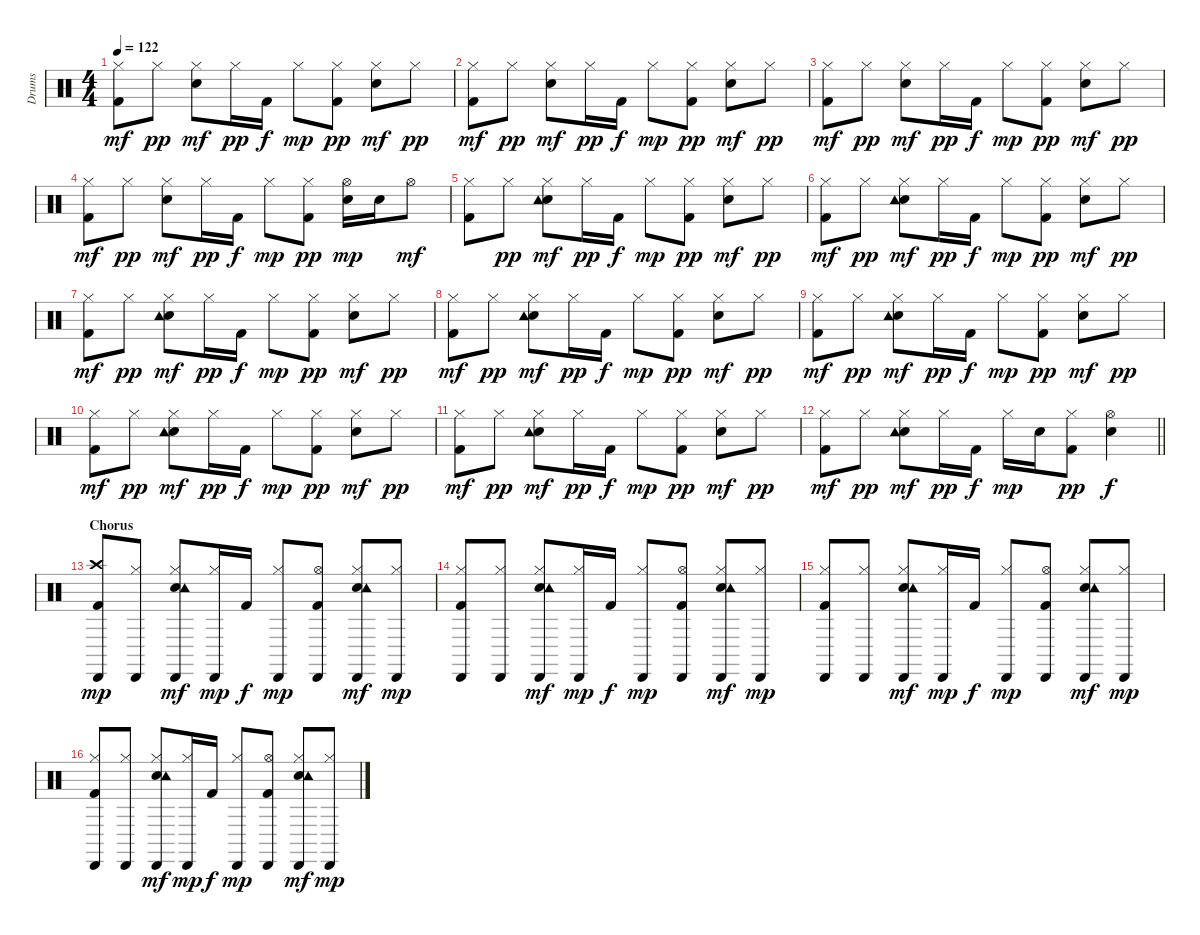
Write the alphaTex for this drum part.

\track ("Drums" "Drums") {instrument percussion}
\staff {score}
\articulation defaults
\ts (4 4)
\tempo 122
\clef neutral
\ks c
("Hi-Hat (closed)" "Kick (hit) 2").8{dy mf} "Hi-Hat (closed)".8{dy pp} ("Hi-Hat (closed)" "Electric Snare (hit)").8{dy mf} "Hi-Hat (closed)".16{dy pp} "Kick (hit) 2".16{dy f} "Hi-Hat (closed)".8{dy mp} ("Hi-Hat (closed)" "Kick (hit) 2").8{dy pp} ("Hi-Hat (closed)" "Electric Snare (hit)").8{dy mf} "Hi-Hat (closed)".8{dy pp} |
("Hi-Hat (closed)" "Kick (hit) 2").8{dy mf} "Hi-Hat (closed)".8{dy pp} ("Hi-Hat (closed)" "Electric Snare (hit)").8{dy mf} "Hi-Hat (closed)".16{dy pp} "Kick (hit) 2".16{dy f} "Hi-Hat (closed)".8{dy mp} ("Hi-Hat (closed)" "Kick (hit) 2").8{dy pp} ("Hi-Hat (closed)" "Electric Snare (hit)").8{dy mf} "Hi-Hat (closed)".8{dy pp} |
("Hi-Hat (closed)" "Kick (hit) 2").8{dy mf} "Hi-Hat (closed)".8{dy pp} ("Hi-Hat (closed)" "Electric Snare (hit)").8{dy mf} "Hi-Hat (closed)".16{dy pp} "Kick (hit) 2".16{dy f} "Hi-Hat (closed)".8{dy mp} ("Hi-Hat (closed)" "Kick (hit) 2").8{dy pp} ("Hi-Hat (closed)" "Electric Snare (hit)").8{dy mf} "Hi-Hat (closed)".8{dy pp} |
("Hi-Hat (closed)" "Kick (hit) 2").8{dy mf} "Hi-Hat (closed)".8{dy pp} ("Hi-Hat (closed)" "Electric Snare (hit)").8{dy mf} "Hi-Hat (closed)".16{dy pp} "Kick (hit) 2".16{dy f} "Hi-Hat (closed)".8{dy mp} ("Hi-Hat (closed)" "Kick (hit) 2").8{dy pp} ("Hi-Hat (open)" "Electric Snare (hit)").16{dy mp} "Electric Snare (hit)".16 "Hi-Hat (open)".8{dy mf} |
("Hi-Hat (closed)" "Kick (hit) 2").8 "Hi-Hat (closed)".8{dy pp} ("Hi-Hat (closed)" "Electric Snare (hit)" "Tambourine (hit)").8{dy mf} "Hi-Hat (closed)".16{dy pp} "Kick (hit) 2".16{dy f} "Hi-Hat (closed)".8{dy mp} ("Hi-Hat (closed)" "Kick (hit) 2").8{dy pp} ("Hi-Hat (closed)" "Electric Snare (hit)").8{dy mf} "Hi-Hat (closed)".8{dy pp} |
("Hi-Hat (closed)" "Kick (hit) 2").8{dy mf} "Hi-Hat (closed)".8{dy pp} ("Hi-Hat (closed)" "Electric Snare (hit)" "Tambourine (hit)").8{dy mf} "Hi-Hat (closed)".16{dy pp} "Kick (hit) 2".16{dy f} "Hi-Hat (closed)".8{dy mp} ("Hi-Hat (closed)" "Kick (hit) 2").8{dy pp} ("Hi-Hat (closed)" "Electric Snare (hit)").8{dy mf} "Hi-Hat (closed)".8{dy pp} |
("Hi-Hat (closed)" "Kick (hit) 2").8{dy mf} "Hi-Hat (closed)".8{dy pp} ("Hi-Hat (closed)" "Electric Snare (hit)" "Tambourine (hit)").8{dy mf} "Hi-Hat (closed)".16{dy pp} "Kick (hit) 2".16{dy f} "Hi-Hat (closed)".8{dy mp} ("Hi-Hat (closed)" "Kick (hit) 2").8{dy pp} ("Hi-Hat (closed)" "Electric Snare (hit)").8{dy mf} "Hi-Hat (closed)".8{dy pp} |
("Hi-Hat (closed)" "Kick (hit) 2").8{dy mf} "Hi-Hat (closed)".8{dy pp} ("Hi-Hat (closed)" "Electric Snare (hit)" "Tambourine (hit)").8{dy mf} "Hi-Hat (closed)".16{dy pp} "Kick (hit) 2".16{dy f} "Hi-Hat (closed)".8{dy mp} ("Hi-Hat (closed)" "Kick (hit) 2").8{dy pp} ("Hi-Hat (closed)" "Electric Snare (hit)").8{dy mf} "Hi-Hat (closed)".8{dy pp} |
("Hi-Hat (closed)" "Kick (hit) 2").8{dy mf} "Hi-Hat (closed)".8{dy pp} ("Hi-Hat (closed)" "Electric Snare (hit)" "Tambourine (hit)").8{dy mf} "Hi-Hat (closed)".16{dy pp} "Kick (hit) 2".16{dy f} "Hi-Hat (closed)".8{dy mp} ("Hi-Hat (closed)" "Kick (hit) 2").8{dy pp} ("Hi-Hat (closed)" "Electric Snare (hit)").8{dy mf} "Hi-Hat (closed)".8{dy pp} |
("Hi-Hat (closed)" "Kick (hit) 2").8{dy mf} "Hi-Hat (closed)".8{dy pp} ("Hi-Hat (closed)" "Electric Snare (hit)" "Tambourine (hit)").8{dy mf} "Hi-Hat (closed)".16{dy pp} "Kick (hit) 2".16{dy f} "Hi-Hat (closed)".8{dy mp} ("Hi-Hat (closed)" "Kick (hit) 2").8{dy pp} ("Hi-Hat (closed)" "Electric Snare (hit)").8{dy mf} "Hi-Hat (closed)".8{dy pp} |
("Hi-Hat (closed)" "Kick (hit) 2").8{dy mf} "Hi-Hat (closed)".8{dy pp} ("Hi-Hat (closed)" "Electric Snare (hit)" "Tambourine (hit)").8{dy mf} "Hi-Hat (closed)".16{dy pp} "Kick (hit) 2".16{dy f} "Hi-Hat (closed)".8{dy mp} ("Hi-Hat (closed)" "Kick (hit) 2").8{dy pp} ("Hi-Hat (closed)" "Electric Snare (hit)").8{dy mf} "Hi-Hat (closed)".8{dy pp} |
\barLineRight lightlight
("Hi-Hat (closed)" "Kick (hit) 2").8{dy mf} "Hi-Hat (closed)".8{dy pp} ("Hi-Hat (closed)" "Electric Snare (hit)" "Tambourine (hit)").8{dy mf} "Hi-Hat (closed)".16{dy pp} "Kick (hit) 2".16{dy f} "Hi-Hat (closed)".16{dy mp} "Electric Snare (hit)".16 ("Hi-Hat (closed)" "Kick (hit) 2").8{dy pp} ("Hi-Hat (open)" "Electric Snare (hit)").4{dy f} |
\section ("" "Chorus")
("Crash high (hit)" "Cabasa (hit)" "Kick (hit) 2").8{dy mp} ("Hi-Hat (closed)" "Cabasa (hit)").8 ("Hi-Hat (closed)" "Electric Snare (hit)" "Cabasa (hit)" "Tambourine (hit)").8{dy mf} ("Hi-Hat (closed)" "Cabasa (hit)").16{dy mp} "Kick (hit) 2".16{dy f} ("Hi-Hat (closed)" "Cabasa (hit)").8{dy mp} ("Hi-Hat (open)" "Cabasa (hit)" "Kick (hit) 2").8 ("Hi-Hat (closed)" "Electric Snare (hit)" "Cabasa (hit)" "Tambourine (hit)").8{dy mf} ("Hi-Hat (closed)" "Cabasa (hit)").8{dy mp} |
("Hi-Hat (closed)" "Cabasa (hit)" "Kick (hit) 2").8 ("Hi-Hat (closed)" "Cabasa (hit)").8 ("Hi-Hat (closed)" "Electric Snare (hit)" "Cabasa (hit)" "Tambourine (hit)").8{dy mf} ("Hi-Hat (closed)" "Cabasa (hit)").16{dy mp} "Kick (hit) 2".16{dy f} ("Hi-Hat (closed)" "Cabasa (hit)").8{dy mp} ("Hi-Hat (open)" "Cabasa (hit)" "Kick (hit) 2").8 ("Hi-Hat (closed)" "Electric Snare (hit)" "Cabasa (hit)" "Tambourine (hit)").8{dy mf} ("Hi-Hat (closed)" "Cabasa (hit)").8{dy mp} |
("Hi-Hat (closed)" "Cabasa (hit)" "Kick (hit) 2").8 ("Hi-Hat (closed)" "Cabasa (hit)").8 ("Hi-Hat (closed)" "Electric Snare (hit)" "Cabasa (hit)" "Tambourine (hit)").8{dy mf} ("Hi-Hat (closed)" "Cabasa (hit)").16{dy mp} "Kick (hit) 2".16{dy f} ("Hi-Hat (closed)" "Cabasa (hit)").8{dy mp} ("Hi-Hat (open)" "Cabasa (hit)" "Kick (hit) 2").8 ("Hi-Hat (closed)" "Electric Snare (hit)" "Cabasa (hit)" "Tambourine (hit)").8{dy mf} ("Hi-Hat (closed)" "Cabasa (hit)").8{dy mp} |
("Hi-Hat (closed)" "Cabasa (hit)" "Kick (hit) 2").8 ("Hi-Hat (closed)" "Cabasa (hit)").8 ("Hi-Hat (closed)" "Electric Snare (hit)" "Cabasa (hit)" "Tambourine (hit)").8{dy mf} ("Hi-Hat (closed)" "Cabasa (hit)").16{dy mp} "Kick (hit) 2".16{dy f} ("Hi-Hat (closed)" "Cabasa (hit)").8{dy mp} ("Hi-Hat (open)" "Cabasa (hit)" "Kick (hit) 2").8 ("Hi-Hat (closed)" "Electric Snare (hit)" "Cabasa (hit)" "Tambourine (hit)").8{dy mf} ("Hi-Hat (closed)" "Cabasa (hit)").8{dy mp}
